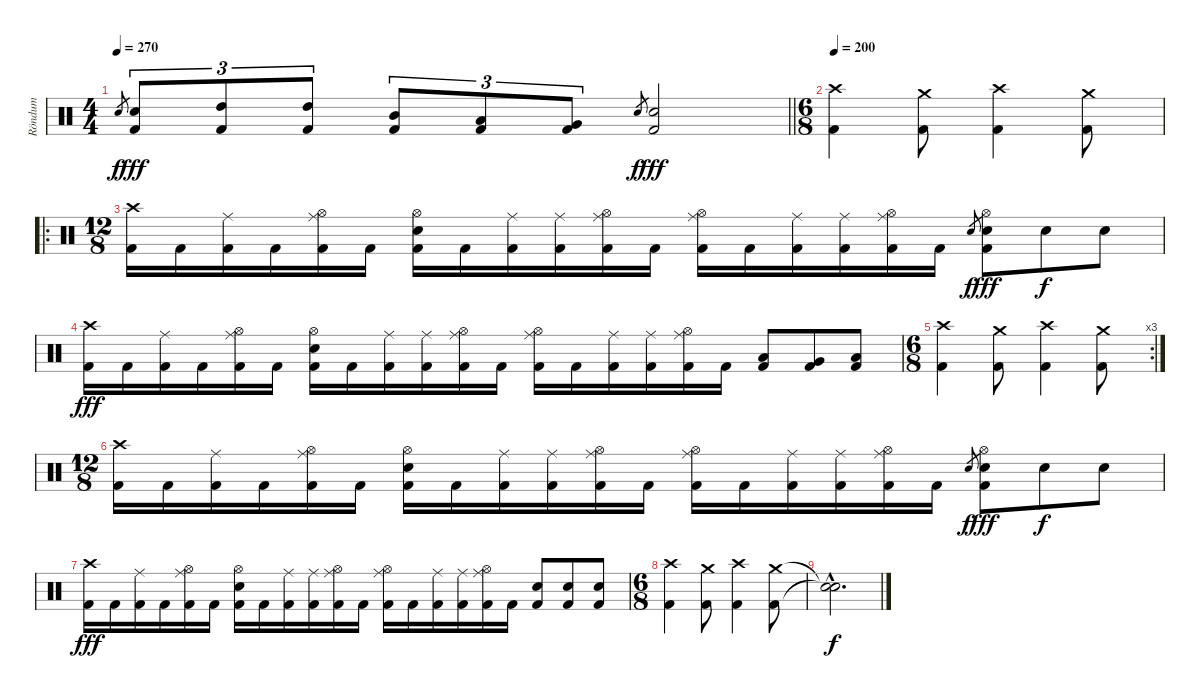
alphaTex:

\track ("Röndum" "Röndum") {instrument percussion}
\staff {score}
\articulation defaults
\ts (4 4)
\tempo 270
\clef neutral
\barLineRight lightlight
\ks c "Snare (hit) 2".8{gr dy f}
("Snare (hit) 2" "Kick (hit) 2").8{tu (3 2) dy fff} ("High Tom (hit)" "Kick (hit) 2").8{tu (3 2)} ("High Tom (hit)" "Kick (hit) 2").8{tu (3 2)} ("Mid Tom (hit)" "Kick (hit) 2").8{tu (3 2)} ("Low Tom (hit)" "Kick (hit) 2").8{tu (3 2)} ("Very Low Tom (hit)" "Kick (hit) 2").8{tu (3 2)} "Snare (hit) 2".8{gr dy f} ("Snare (hit) 2" "Kick (hit) 2").2{dy fff} |
\ts (6 8)
\tempo 200
("Crash high (hit)" "Kick (hit) 2").4 ("Crash medium (hit)" "Kick (hit) 2").8 ("Crash high (hit)" "Kick (hit) 2").4 ("Crash medium (hit)" "Kick (hit) 2").8 |
\ro
\ts (12 8)
("Crash high (hit)" "Kick (hit) 2").16 "Kick (hit) 2".16 ("Ride (middle)" "Kick (hit) 2").16 "Kick (hit) 2".16 ("Hi-Hat (open)" "Ride (middle)" "Kick (hit) 2").16 "Kick (hit) 2".16 ("Hi-Hat (open)" "Snare (hit) 2" "Kick (hit) 2").16 "Kick (hit) 2".16 ("Ride (middle)" "Kick (hit) 2").16 ("Ride (middle)" "Kick (hit) 2").16 ("Hi-Hat (open)" "Ride (middle)" "Kick (hit) 2").16 "Kick (hit) 2".16 ("Hi-Hat (open)" "Ride (middle)" "Kick (hit) 2").16 "Kick (hit) 2".16 ("Ride (middle)" "Kick (hit) 2").16 ("Ride (middle)" "Kick (hit) 2").16 ("Hi-Hat (open)" "Ride (middle)" "Kick (hit) 2").16 "Kick (hit) 2".16 "Snare (hit) 2".8{gr dy f} ("Hi-Hat (open)" "Snare (hit) 2" "Kick (hit) 2").8{dy fff} "Snare (hit) 2".8{dy f} "Snare (hit) 2".8 |
("Crash high (hit)" "Kick (hit) 2").16{dy fff} "Kick (hit) 2".16 ("Ride (middle)" "Kick (hit) 2").16 "Kick (hit) 2".16 ("Hi-Hat (open)" "Ride (middle)" "Kick (hit) 2").16 "Kick (hit) 2".16 ("Hi-Hat (open)" "Snare (hit) 2" "Kick (hit) 2").16 "Kick (hit) 2".16 ("Ride (middle)" "Kick (hit) 2").16 ("Ride (middle)" "Kick (hit) 2").16 ("Hi-Hat (open)" "Ride (middle)" "Kick (hit) 2").16 "Kick (hit) 2".16 ("Hi-Hat (open)" "Ride (middle)" "Kick (hit) 2").16 "Kick (hit) 2".16 ("Ride (middle)" "Kick (hit) 2").16 ("Ride (middle)" "Kick (hit) 2").16 ("Hi-Hat (open)" "Ride (middle)" "Kick (hit) 2").16 "Kick (hit) 2".16 ("Low Tom (hit)" "Kick (hit) 2").8 ("Very Low Tom (hit)" "Kick (hit) 2").8 ("Low Floor Tom (hit)" "Kick (hit) 2").8 |
\rc 3
\ts (6 8)
("Crash high (hit)" "Kick (hit) 2").4 ("Crash medium (hit)" "Kick (hit) 2").8 ("Crash high (hit)" "Kick (hit) 2").4 ("Crash medium (hit)" "Kick (hit) 2").8 |
\ts (12 8)
("Crash high (hit)" "Kick (hit) 2").16 "Kick (hit) 2".16 ("Ride (middle)" "Kick (hit) 2").16 "Kick (hit) 2".16 ("Hi-Hat (open)" "Ride (middle)" "Kick (hit) 2").16 "Kick (hit) 2".16 ("Hi-Hat (open)" "Snare (hit) 2" "Kick (hit) 2").16 "Kick (hit) 2".16 ("Ride (middle)" "Kick (hit) 2").16 ("Ride (middle)" "Kick (hit) 2").16 ("Hi-Hat (open)" "Ride (middle)" "Kick (hit) 2").16 "Kick (hit) 2".16 ("Hi-Hat (open)" "Ride (middle)" "Kick (hit) 2").16 "Kick (hit) 2".16 ("Ride (middle)" "Kick (hit) 2").16 ("Ride (middle)" "Kick (hit) 2").16 ("Hi-Hat (open)" "Ride (middle)" "Kick (hit) 2").16 "Kick (hit) 2".16 "Snare (hit) 2".8{gr dy f} ("Hi-Hat (open)" "Snare (hit) 2" "Kick (hit) 2").8{dy fff} "Snare (hit) 2".8{dy f} "Snare (hit) 2".8 |
("Crash high (hit)" "Kick (hit) 2").16{dy fff} "Kick (hit) 2".16 ("Ride (middle)" "Kick (hit) 2").16 "Kick (hit) 2".16 ("Hi-Hat (open)" "Ride (middle)" "Kick (hit) 2").16 "Kick (hit) 2".16 ("Hi-Hat (open)" "Snare (hit) 2" "Kick (hit) 2").16 "Kick (hit) 2".16 ("Ride (middle)" "Kick (hit) 2").16 ("Ride (middle)" "Kick (hit) 2").16 ("Hi-Hat (open)" "Ride (middle)" "Kick (hit) 2").16 "Kick (hit) 2".16 ("Hi-Hat (open)" "Ride (middle)" "Kick (hit) 2").16 "Kick (hit) 2".16 ("Ride (middle)" "Kick (hit) 2").16 ("Ride (middle)" "Kick (hit) 2").16 ("Hi-Hat (open)" "Ride (middle)" "Kick (hit) 2").16 "Kick (hit) 2".16 ("Snare (hit) 2" "Kick (hit) 2").8 ("Snare (hit) 2" "Kick (hit) 2").8 ("Snare (hit) 2" "Kick (hit) 2").8 |
\ts (6 8)
("Crash high (hit)" "Kick (hit) 2").4 ("Crash medium (hit)" "Kick (hit) 2").8 ("Crash high (hit)" "Kick (hit) 2").4 ("Crash medium (hit)" "Kick (hit) 2").8 |
("Snare (hit)"{hac t} "Snare (hit)"{hac t}).2{d dy f}
